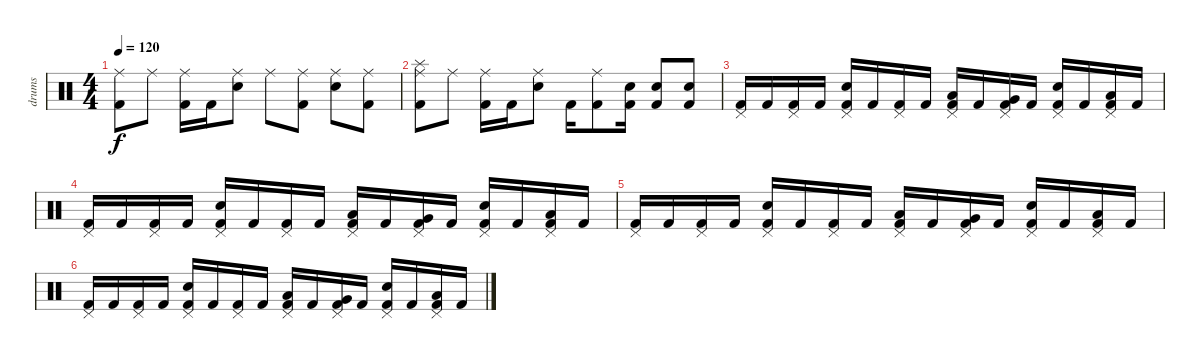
\track ("drums" "drums") {instrument percussion}
\staff {score}
\articulation defaults
\ts (4 4)
\tempo 120
\clef neutral
\ks c
("Ride (middle)" "Kick (hit) 2").8{dy f} "Ride (middle)".8 ("Ride (middle)" "Kick (hit) 2").16 "Kick (hit) 2".16 ("Ride (middle)" "Electric Snare (hit)").8 "Ride (middle)".8 ("Ride (middle)" "Kick (hit) 2").8 ("Ride (middle)" "Electric Snare (hit)").8 ("Ride (middle)" "Kick (hit) 2").8 |
("Splash (hit)" "Ride (middle)" "Kick (hit) 2").8 "Ride (middle)".8 ("Ride (middle)" "Kick (hit) 2").16 "Kick (hit) 2".16 ("Ride (middle)" "Electric Snare (hit)").8 "Kick (hit) 2".16 ("Ride (middle)" "Kick (hit) 2").8 ("Kick (hit) 2" "Electric Snare (hit)").16 ("Kick (hit) 2" "Electric Snare (hit)").8 ("Kick (hit) 2" "Electric Snare (hit)").8 |
("Pedal Hi-Hat (hit)" "Kick (hit) 2").16 "Kick (hit) 2".16 ("Pedal Hi-Hat (hit)" "Kick (hit) 2").16 "Kick (hit) 2".16 ("Electric Snare (hit)" "Pedal Hi-Hat (hit)" "Kick (hit) 2").16 "Kick (hit) 2".16 ("Pedal Hi-Hat (hit)" "Kick (hit) 2").16 "Kick (hit) 2".16 ("Low Tom (hit)" "Pedal Hi-Hat (hit)" "Kick (hit) 2").16 "Kick (hit) 2".16 ("Very Low Tom (hit)" "Pedal Hi-Hat (hit)" "Kick (hit) 2").16 "Kick (hit) 2".16 ("Electric Snare (hit)" "Pedal Hi-Hat (hit)" "Kick (hit) 2").16 "Kick (hit) 2".16 ("Low Floor Tom (hit)" "Pedal Hi-Hat (hit)" "Kick (hit) 2").16 "Kick (hit) 2".16 |
("Pedal Hi-Hat (hit)" "Kick (hit) 2").16 "Kick (hit) 2".16 ("Pedal Hi-Hat (hit)" "Kick (hit) 2").16 "Kick (hit) 2".16 ("Electric Snare (hit)" "Pedal Hi-Hat (hit)" "Kick (hit) 2").16 "Kick (hit) 2".16 ("Pedal Hi-Hat (hit)" "Kick (hit) 2").16 "Kick (hit) 2".16 ("Low Tom (hit)" "Pedal Hi-Hat (hit)" "Kick (hit) 2").16 "Kick (hit) 2".16 ("Very Low Tom (hit)" "Pedal Hi-Hat (hit)" "Kick (hit) 2").16 "Kick (hit) 2".16 ("Electric Snare (hit)" "Pedal Hi-Hat (hit)" "Kick (hit) 2").16 "Kick (hit) 2".16 ("Low Floor Tom (hit)" "Pedal Hi-Hat (hit)" "Kick (hit) 2").16 "Kick (hit) 2".16 |
("Pedal Hi-Hat (hit)" "Kick (hit) 2").16 "Kick (hit) 2".16 ("Pedal Hi-Hat (hit)" "Kick (hit) 2").16 "Kick (hit) 2".16 ("Electric Snare (hit)" "Pedal Hi-Hat (hit)" "Kick (hit) 2").16 "Kick (hit) 2".16 ("Pedal Hi-Hat (hit)" "Kick (hit) 2").16 "Kick (hit) 2".16 ("Low Tom (hit)" "Pedal Hi-Hat (hit)" "Kick (hit) 2").16 "Kick (hit) 2".16 ("Very Low Tom (hit)" "Pedal Hi-Hat (hit)" "Kick (hit) 2").16 "Kick (hit) 2".16 ("Electric Snare (hit)" "Pedal Hi-Hat (hit)" "Kick (hit) 2").16 "Kick (hit) 2".16 ("Low Floor Tom (hit)" "Pedal Hi-Hat (hit)" "Kick (hit) 2").16 "Kick (hit) 2".16 |
("Pedal Hi-Hat (hit)" "Kick (hit) 2").16 "Kick (hit) 2".16 ("Pedal Hi-Hat (hit)" "Kick (hit) 2").16 "Kick (hit) 2".16 ("Electric Snare (hit)" "Pedal Hi-Hat (hit)" "Kick (hit) 2").16 "Kick (hit) 2".16 ("Pedal Hi-Hat (hit)" "Kick (hit) 2").16 "Kick (hit) 2".16 ("Low Tom (hit)" "Pedal Hi-Hat (hit)" "Kick (hit) 2").16 "Kick (hit) 2".16 ("Very Low Tom (hit)" "Pedal Hi-Hat (hit)" "Kick (hit) 2").16 "Kick (hit) 2".16 ("Electric Snare (hit)" "Pedal Hi-Hat (hit)" "Kick (hit) 2").16 "Kick (hit) 2".16 ("Low Floor Tom (hit)" "Pedal Hi-Hat (hit)" "Kick (hit) 2").16 "Kick (hit) 2".16
